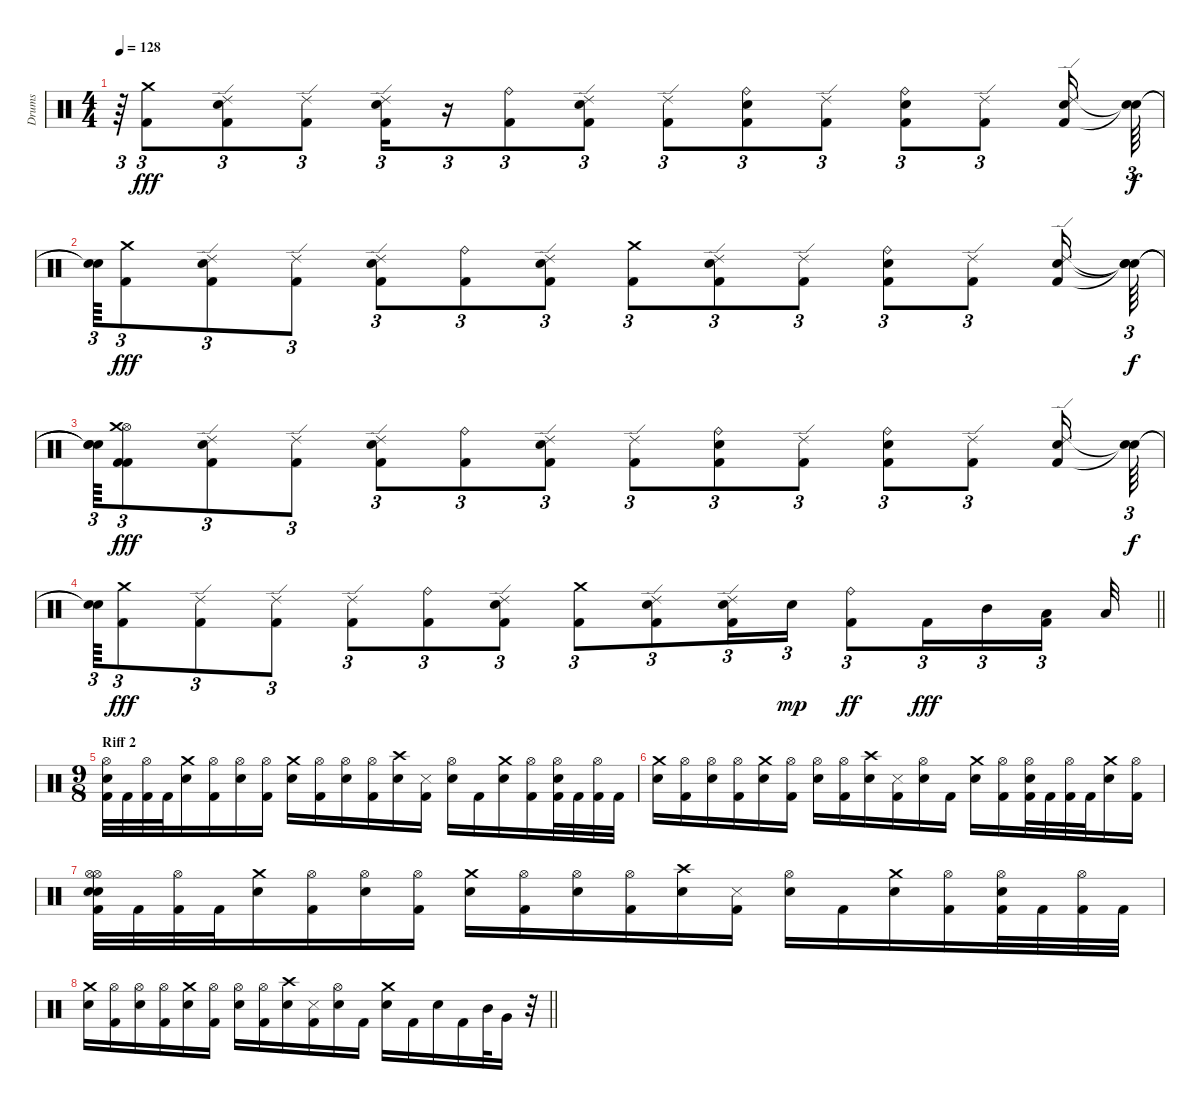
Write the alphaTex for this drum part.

\track ("Drums" "Drums") {instrument percussion}
\staff {score}
\articulation defaults
\ts (4 4)
\tempo 128
\clef neutral
\ks c
r.64{tu (3 2) dy fff} ("Kick (hit) 2" "Crash medium (hit)").8{tu (3 2)} ("Kick (hit) 2" "Ride (edge) 2" "Snare (hit) 2").8{tu (3 2)} ("Kick (hit) 2" "Ride (edge) 2").8{tu (3 2)} ("Kick (hit) 2" "Ride (edge) 2" "Snare (hit) 2").16{tu (3 2)} r.16{tu (3 2)} ("Kick (hit) 2" "Ride (bell)").8{tu (3 2)} ("Kick (hit) 2" "Ride (edge) 2" "Snare (hit) 2").8{tu (3 2)} ("Kick (hit) 2" "Ride (edge) 2").8{tu (3 2)} ("Kick (hit) 2" "Ride (bell)" "Snare (hit) 2").8{tu (3 2)} ("Kick (hit) 2" "Ride (edge) 2").8{tu (3 2)} ("Kick (hit) 2" "Ride (bell)" "Snare (hit) 2").8{tu (3 2)} ("Kick (hit) 2" "Ride (edge) 2").8{tu (3 2)} ("Kick (hit) 2" "Ride (edge) 2" "Snare (hit) 2").16 ("Snare (hit)"{t} "Snare (hit)"{t}).64{tu (3 2) dy f} |
("Snare (hit)"{t} "Snare (hit)"{t}).64{tu (3 2)} ("Kick (hit) 2" "Crash medium (hit)").8{tu (3 2) dy fff} ("Kick (hit) 2" "Ride (edge) 2" "Snare (hit) 2").8{tu (3 2)} ("Kick (hit) 2" "Ride (edge) 2").8{tu (3 2)} ("Kick (hit) 2" "Ride (edge) 2" "Snare (hit) 2").8{tu (3 2)} ("Kick (hit) 2" "Ride (bell)").8{tu (3 2)} ("Kick (hit) 2" "Snare (hit) 2" "Ride (edge) 2").8{tu (3 2)} ("Kick (hit) 2" "Crash medium (hit)").8{tu (3 2)} ("Kick (hit) 2" "Snare (hit) 2" "Ride (edge) 2").8{tu (3 2)} ("Kick (hit) 2" "Ride (edge) 2").8{tu (3 2)} ("Kick (hit) 2" "Ride (bell)" "Snare (hit) 2").8{tu (3 2)} ("Kick (hit) 2" "Ride (edge) 2").8{tu (3 2)} ("Kick (hit) 2" "Snare (hit) 2" "Ride (edge) 2").16 ("Snare (hit)"{t} "Snare (hit)"{t} "Snare (hit)"{t}).64{tu (3 2) dy f} |
("Snare (hit)"{t} "Snare (hit)"{t} "Snare (hit)"{t}).64{tu (3 2)} ("Kick (hit) 2" "Hi-Hat (open)" "Kick (hit) 2" "Crash medium (hit)").8{tu (3 2) dy fff} ("Kick (hit) 2" "Ride (edge) 2" "Snare (hit) 2").8{tu (3 2)} ("Kick (hit) 2" "Ride (edge) 2").8{tu (3 2)} ("Kick (hit) 2" "Ride (edge) 2" "Snare (hit) 2").8{tu (3 2)} ("Kick (hit) 2" "Ride (bell)").8{tu (3 2)} ("Kick (hit) 2" "Ride (edge) 2" "Snare (hit) 2").8{tu (3 2)} ("Kick (hit) 2" "Ride (edge) 2").8{tu (3 2)} ("Kick (hit) 2" "Ride (bell)" "Snare (hit) 2").8{tu (3 2)} ("Kick (hit) 2" "Ride (edge) 2").8{tu (3 2)} ("Kick (hit) 2" "Ride (bell)" "Snare (hit) 2").8{tu (3 2)} ("Kick (hit) 2" "Ride (edge) 2").8{tu (3 2)} ("Kick (hit) 2" "Ride (edge) 2" "Snare (hit) 2").16 ("Snare (hit)"{t} "Snare (hit)"{t}).64{tu (3 2) dy f} |
\barLineRight lightlight
("Snare (hit)"{t} "Snare (hit)"{t}).64{tu (3 2)} ("Kick (hit) 2" "Crash medium (hit)").8{tu (3 2) dy fff} ("Kick (hit) 2" "Ride (edge) 2").8{tu (3 2)} ("Kick (hit) 2" "Ride (edge) 2").8{tu (3 2)} ("Kick (hit) 2" "Ride (edge) 2").8{tu (3 2)} ("Kick (hit) 2" "Ride (bell)").8{tu (3 2)} ("Kick (hit) 2" "Snare (hit) 2" "Ride (edge) 2").8{tu (3 2)} ("Kick (hit) 2" "Crash medium (hit)").8{tu (3 2)} ("Kick (hit) 2" "Snare (hit) 2" "Ride (edge) 2").8{tu (3 2)} ("Kick (hit) 2" "Snare (hit) 2" "Ride (edge) 2").16{tu (3 2)} "Snare (hit) 2".16{tu (3 2) dy mp} ("Kick (hit) 2" "Ride (bell)").8{tu (3 2) dy ff} "Kick (hit) 2".16{tu (3 2) dy fff} "Mid Tom (hit)".16{tu (3 2)} ("Kick (hit) 2" "Low Tom (hit)").16{tu (3 2) beam splitsecondary} "Low Tom (hit)".32 |
\ts (9 8)
\section ("" "Riff 2")
("Kick (hit) 2" "Snare (hit) 2" "Hi-Hat (open)").32 "Kick (hit) 2".32 ("Kick (hit) 2" "Hi-Hat (open)").32 "Kick (hit) 2".32 ("Snare (hit) 2" "Crash medium (hit)").16 ("Kick (hit) 2" "Hi-Hat (open)").16 ("Snare (hit) 2" "Hi-Hat (open)").16 ("Kick (hit) 2" "Hi-Hat (open)").16 ("Snare (hit) 2" "Crash medium (hit)").16 ("Kick (hit) 2" "Hi-Hat (open)").16 ("Snare (hit) 2" "Hi-Hat (open)").16 ("Kick (hit) 2" "Hi-Hat (open)").16 ("Snare (hit) 2" "Crash high (hit)").16 ("Kick (hit) 2" "Snare (side stick) 3").16 ("Snare (hit) 2" "Hi-Hat (open)").16 "Kick (hit) 2".16 ("Snare (hit) 2" "Crash medium (hit)").16 ("Kick (hit) 2" "Hi-Hat (open)").16 ("Kick (hit) 2" "Snare (hit) 2" "Hi-Hat (open)").32 "Kick (hit) 2".32 ("Kick (hit) 2" "Hi-Hat (open)").32 "Kick (hit) 2".32 |
("Snare (hit) 2" "Crash medium (hit)").16 ("Kick (hit) 2" "Hi-Hat (open)").16 ("Snare (hit) 2" "Hi-Hat (open)").16 ("Kick (hit) 2" "Hi-Hat (open)").16 ("Snare (hit) 2" "Crash medium (hit)").16 ("Kick (hit) 2" "Hi-Hat (open)").16 ("Snare (hit) 2" "Hi-Hat (open)").16 ("Kick (hit) 2" "Hi-Hat (open)").16 ("Snare (hit) 2" "Crash high (hit)").16 ("Kick (hit) 2" "Snare (side stick) 3").16 ("Snare (hit) 2" "Hi-Hat (open)").16 "Kick (hit) 2".16 ("Snare (hit) 2" "Crash medium (hit)").16 ("Kick (hit) 2" "Hi-Hat (open)").16 ("Kick (hit) 2" "Snare (hit) 2" "Hi-Hat (open)").32 "Kick (hit) 2".32 ("Kick (hit) 2" "Hi-Hat (open)").32 "Kick (hit) 2".32 ("Snare (hit) 2" "Crash medium (hit)").16 ("Kick (hit) 2" "Hi-Hat (open)").16 |
("Snare (hit) 2" "Hi-Hat (open)" "Kick (hit) 2" "Snare (hit) 2" "Hi-Hat (open)").32 "Kick (hit) 2".32 ("Kick (hit) 2" "Hi-Hat (open)").32 "Kick (hit) 2".32 ("Snare (hit) 2" "Crash medium (hit)").16 ("Kick (hit) 2" "Hi-Hat (open)").16 ("Snare (hit) 2" "Hi-Hat (open)").16 ("Kick (hit) 2" "Hi-Hat (open)").16 ("Snare (hit) 2" "Crash medium (hit)").16 ("Kick (hit) 2" "Hi-Hat (open)").16 ("Snare (hit) 2" "Hi-Hat (open)").16 ("Kick (hit) 2" "Hi-Hat (open)").16 ("Snare (hit) 2" "Crash high (hit)").16 ("Kick (hit) 2" "Snare (side stick) 3").16 ("Snare (hit) 2" "Hi-Hat (open)").16 "Kick (hit) 2".16 ("Snare (hit) 2" "Crash medium (hit)").16 ("Kick (hit) 2" "Hi-Hat (open)").16 ("Kick (hit) 2" "Snare (hit) 2" "Hi-Hat (open)").32 "Kick (hit) 2".32 ("Kick (hit) 2" "Hi-Hat (open)").32 "Kick (hit) 2".32 |
\barLineRight lightlight
("Snare (hit) 2" "Crash medium (hit)").16 ("Kick (hit) 2" "Hi-Hat (open)").16 ("Snare (hit) 2" "Hi-Hat (open)").16 ("Kick (hit) 2" "Hi-Hat (open)").16 ("Snare (hit) 2" "Crash medium (hit)").16 ("Kick (hit) 2" "Hi-Hat (open)").16 ("Snare (hit) 2" "Hi-Hat (open)").16 ("Kick (hit) 2" "Hi-Hat (open)").16 ("Snare (hit) 2" "Crash high (hit)").16 ("Kick (hit) 2" "Snare (side stick) 3").16 ("Snare (hit) 2" "Hi-Hat (open)").16 "Kick (hit) 2".16 ("Snare (hit) 2" "Crash medium (hit)").16 "Kick (hit) 2".16 "Snare (hit) 2".16 "Kick (hit) 2".16 "Mid Tom (hit)".32 "Very Low Tom (hit)".16 r.32
